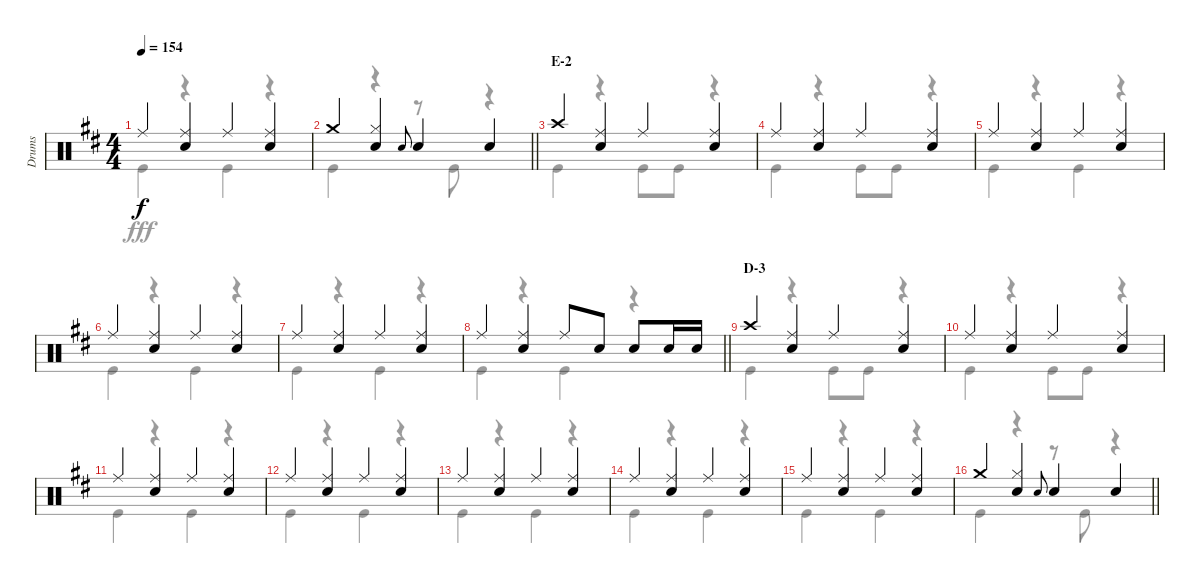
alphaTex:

\track ("Drums" "Drums") {instrument percussion}
\staff {score}
\articulation defaults
\voice
\ts (4 4)
\tempo 154
\clef neutral
\ks d "Ride (middle)".4{dy f}
("Ride (middle)" "Snare (hit) 2").4 "Ride (middle)".4 ("Ride (middle)" "Snare (hit) 2").4 |
\barLineRight lightlight "Crash medium (hit)".4
("Hi-Hat (closed)" "Snare (hit) 2").4 "Snare (hit) 2".8{gr onbeat} "Snare (hit) 2".4 "Snare (hit) 2".4 |
\section ("" "E-2")
"Crash high (hit)".4 ("Ride (middle)" "Snare (hit) 2").4 "Ride (middle)".4 ("Ride (middle)" "Snare (hit) 2").4 |
"Ride (middle)".4 ("Ride (middle)" "Snare (hit) 2").4 "Ride (middle)".4 ("Ride (middle)" "Snare (hit) 2").4 |
"Ride (middle)".4 ("Ride (middle)" "Snare (hit) 2").4 "Ride (middle)".4 ("Ride (middle)" "Snare (hit) 2").4 |
"Ride (middle)".4 ("Ride (middle)" "Snare (hit) 2").4 "Ride (middle)".4 ("Ride (middle)" "Snare (hit) 2").4 |
"Ride (middle)".4 ("Ride (middle)" "Snare (hit) 2").4 "Ride (middle)".4 ("Ride (middle)" "Snare (hit) 2").4 |
\barLineRight lightlight "Ride (middle)".4
("Ride (middle)" "Snare (hit) 2").4 "Ride (middle)".8 "Snare (hit) 2".8 "Snare (hit) 2".8 "Snare (hit) 2".16 "Snare (hit) 2".16 |
\section ("" "D-3")
"Crash high (hit)".4 ("Ride (middle)" "Snare (hit) 2").4 "Ride (middle)".4 ("Ride (middle)" "Snare (hit) 2").4 |
"Ride (middle)".4 ("Ride (middle)" "Snare (hit) 2").4 "Ride (middle)".4 ("Ride (middle)" "Snare (hit) 2").4 |
"Ride (middle)".4 ("Ride (middle)" "Snare (hit) 2").4 "Ride (middle)".4 ("Ride (middle)" "Snare (hit) 2").4 |
"Ride (middle)".4 ("Ride (middle)" "Snare (hit) 2").4 "Ride (middle)".4 ("Ride (middle)" "Snare (hit) 2").4 |
"Ride (middle)".4 ("Ride (middle)" "Snare (hit) 2").4 "Ride (middle)".4 ("Ride (middle)" "Snare (hit) 2").4 |
"Ride (middle)".4 ("Ride (middle)" "Snare (hit) 2").4 "Ride (middle)".4 ("Ride (middle)" "Snare (hit) 2").4 |
"Ride (middle)".4 ("Ride (middle)" "Snare (hit) 2").4 "Ride (middle)".4 ("Ride (middle)" "Snare (hit) 2").4 |
\barLineRight lightlight "Crash medium (hit)".4
("Hi-Hat (closed)" "Snare (hit) 2").4 "Snare (hit) 2".8{gr onbeat} "Snare (hit) 2".4 "Snare (hit) 2".4
\voice
\clef neutral
\ottava regular
\simile none
\ks d "Kick (hit)".4{dy fff}
r.4 "Kick (hit)".4 r.4 |
\barLineRight lightlight "Kick (hit)".4
r.4 r.8 "Kick (hit)".8 r.4 |
"Kick (hit)".4 r.4 "Kick (hit)".8 "Kick (hit)".8 r.4 |
"Kick (hit)".4 r.4 "Kick (hit)".8 "Kick (hit)".8 r.4 |
"Kick (hit)".4 r.4 "Kick (hit)".4 r.4 |
"Kick (hit)".4 r.4 "Kick (hit)".4 r.4 |
"Kick (hit)".4 r.4 "Kick (hit)".4 r.4 |
\barLineRight lightlight "Kick (hit)".4
r.4 "Kick (hit)".4 r.4 |
"Kick (hit)".4 r.4 "Kick (hit)".8 "Kick (hit)".8 r.4 |
"Kick (hit)".4 r.4 "Kick (hit)".8 "Kick (hit)".8 r.4 |
"Kick (hit)".4 r.4 "Kick (hit)".4 r.4 |
"Kick (hit)".4 r.4 "Kick (hit)".4 r.4 |
"Kick (hit)".4 r.4 "Kick (hit)".4 r.4 |
"Kick (hit)".4 r.4 "Kick (hit)".4 r.4 |
"Kick (hit)".4 r.4 "Kick (hit)".4 r.4 |
\barLineRight lightlight "Kick (hit)".4
r.4 r.8 "Kick (hit)".8 r.4
